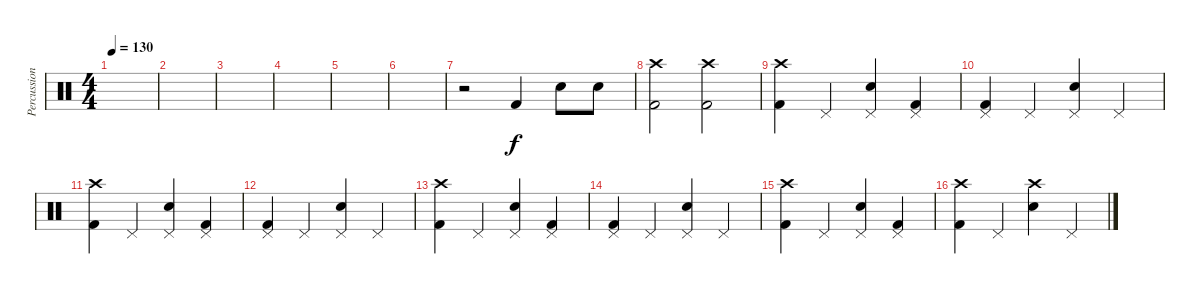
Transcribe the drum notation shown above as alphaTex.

\track ("Percussions" "Percussion") {instrument percussion}
\staff {score}
\articulation defaults
\ts (4 4)
\tempo 130
\clef neutral
\ks c
|
|
|
|
|
|
r.2 "Kick (hit) 2".4 "Snare (hit) 2".8 "Snare (hit) 2".8 |
("Crash high (hit)" "Kick (hit) 2").2 ("Crash high (hit)" "Kick (hit) 2").2 |
("Crash high (hit)" "Kick (hit) 2").4 "Pedal Hi-Hat (hit)".4 ("Pedal Hi-Hat (hit)" "Snare (hit) 2").4 ("Pedal Hi-Hat (hit)" "Kick (hit) 2").4 |
("Pedal Hi-Hat (hit)" "Kick (hit) 2").4 "Pedal Hi-Hat (hit)".4 ("Pedal Hi-Hat (hit)" "Snare (hit) 2").4 "Pedal Hi-Hat (hit)".4 |
("Crash high (hit)" "Kick (hit) 2").4 "Pedal Hi-Hat (hit)".4 ("Pedal Hi-Hat (hit)" "Snare (hit) 2").4 ("Pedal Hi-Hat (hit)" "Kick (hit) 2").4 |
("Pedal Hi-Hat (hit)" "Kick (hit) 2").4 "Pedal Hi-Hat (hit)".4 ("Pedal Hi-Hat (hit)" "Snare (hit) 2").4 "Pedal Hi-Hat (hit)".4 |
("Crash high (hit)" "Kick (hit) 2").4 "Pedal Hi-Hat (hit)".4 ("Pedal Hi-Hat (hit)" "Snare (hit) 2").4 ("Pedal Hi-Hat (hit)" "Kick (hit) 2").4 |
("Pedal Hi-Hat (hit)" "Kick (hit) 2").4 "Pedal Hi-Hat (hit)".4 ("Pedal Hi-Hat (hit)" "Snare (hit) 2").4 "Pedal Hi-Hat (hit)".4 |
("Crash high (hit)" "Kick (hit) 2").4 "Pedal Hi-Hat (hit)".4 ("Pedal Hi-Hat (hit)" "Snare (hit) 2").4 ("Pedal Hi-Hat (hit)" "Kick (hit) 2").4 |
("Crash high (hit)" "Kick (hit) 2").4 "Pedal Hi-Hat (hit)".4 ("Crash high (hit)" "Snare (hit) 2").4 "Pedal Hi-Hat (hit)".4
